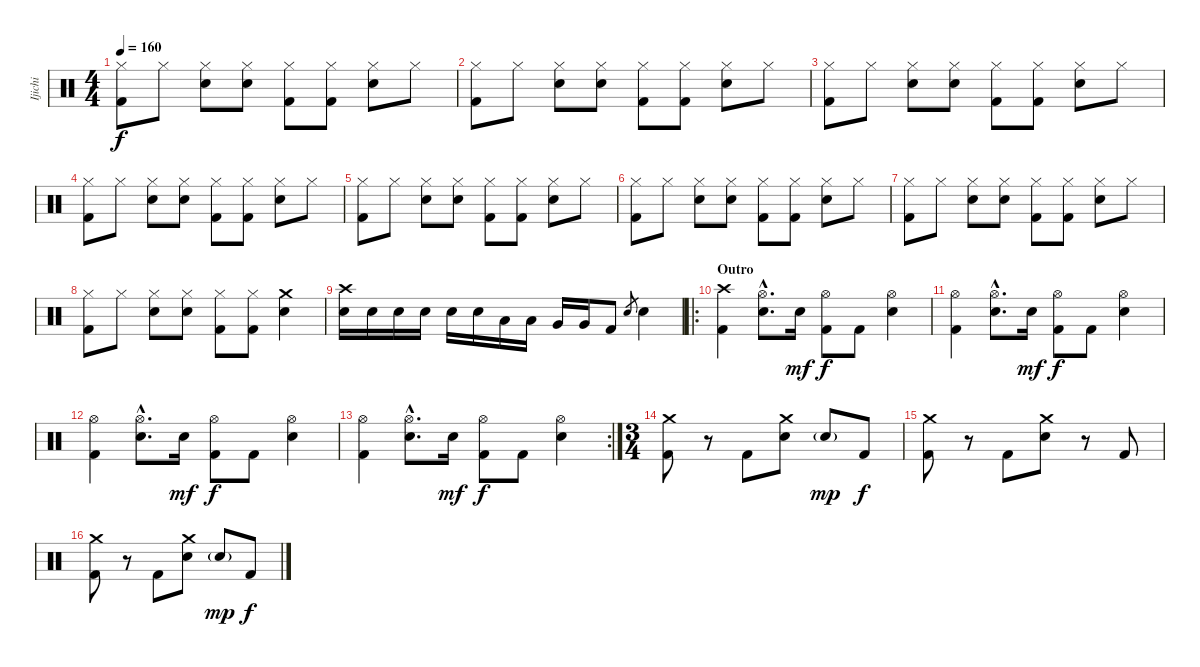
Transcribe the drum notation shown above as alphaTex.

\track ("Ijichi" "Ijichi") {instrument percussion}
\staff {score}
\articulation defaults
\ts (4 4)
\tempo 160
\clef neutral
\ks c
("Kick (hit) 2" "Hi-Hat (closed)").8{dy f} "Hi-Hat (closed)".8 ("Electric Snare (hit)" "Hi-Hat (closed)").8 ("Electric Snare (hit)" "Hi-Hat (closed)").8 ("Kick (hit) 2" "Hi-Hat (closed)").8 ("Kick (hit) 2" "Hi-Hat (closed)").8 ("Electric Snare (hit)" "Hi-Hat (closed)").8 "Hi-Hat (closed)".8 |
("Kick (hit) 2" "Hi-Hat (closed)").8 "Hi-Hat (closed)".8 ("Electric Snare (hit)" "Hi-Hat (closed)").8 ("Electric Snare (hit)" "Hi-Hat (closed)").8 ("Kick (hit) 2" "Hi-Hat (closed)").8 ("Kick (hit) 2" "Hi-Hat (closed)").8 ("Electric Snare (hit)" "Hi-Hat (closed)").8 "Hi-Hat (closed)".8 |
("Kick (hit) 2" "Hi-Hat (closed)").8 "Hi-Hat (closed)".8 ("Electric Snare (hit)" "Hi-Hat (closed)").8 ("Electric Snare (hit)" "Hi-Hat (closed)").8 ("Kick (hit) 2" "Hi-Hat (closed)").8 ("Kick (hit) 2" "Hi-Hat (closed)").8 ("Electric Snare (hit)" "Hi-Hat (closed)").8 "Hi-Hat (closed)".8 |
("Kick (hit) 2" "Hi-Hat (closed)").8 "Hi-Hat (closed)".8 ("Electric Snare (hit)" "Hi-Hat (closed)").8 ("Electric Snare (hit)" "Hi-Hat (closed)").8 ("Kick (hit) 2" "Hi-Hat (closed)").8 ("Kick (hit) 2" "Hi-Hat (closed)").8 ("Electric Snare (hit)" "Hi-Hat (closed)").8 "Hi-Hat (closed)".8 |
("Kick (hit) 2" "Hi-Hat (closed)").8 "Hi-Hat (closed)".8 ("Electric Snare (hit)" "Hi-Hat (closed)").8 ("Electric Snare (hit)" "Hi-Hat (closed)").8 ("Kick (hit) 2" "Hi-Hat (closed)").8 ("Kick (hit) 2" "Hi-Hat (closed)").8 ("Electric Snare (hit)" "Hi-Hat (closed)").8 "Hi-Hat (closed)".8 |
("Kick (hit) 2" "Hi-Hat (closed)").8 "Hi-Hat (closed)".8 ("Electric Snare (hit)" "Hi-Hat (closed)").8 ("Electric Snare (hit)" "Hi-Hat (closed)").8 ("Kick (hit) 2" "Hi-Hat (closed)").8 ("Kick (hit) 2" "Hi-Hat (closed)").8 ("Electric Snare (hit)" "Hi-Hat (closed)").8 "Hi-Hat (closed)".8 |
("Kick (hit) 2" "Hi-Hat (closed)").8 "Hi-Hat (closed)".8 ("Electric Snare (hit)" "Hi-Hat (closed)").8 ("Electric Snare (hit)" "Hi-Hat (closed)").8 ("Kick (hit) 2" "Hi-Hat (closed)").8 ("Kick (hit) 2" "Hi-Hat (closed)").8 ("Electric Snare (hit)" "Hi-Hat (closed)").8 "Hi-Hat (closed)".8 |
("Kick (hit) 2" "Hi-Hat (closed)").8 "Hi-Hat (closed)".8 ("Electric Snare (hit)" "Hi-Hat (closed)").8 ("Electric Snare (hit)" "Hi-Hat (closed)").8 ("Kick (hit) 2" "Hi-Hat (closed)").8 ("Kick (hit) 2" "Hi-Hat (closed)").8 ("Electric Snare (hit)" "Crash medium (hit)").4 |
("Electric Snare (hit)" "Crash high (hit)").16 "Electric Snare (hit)".16 "Electric Snare (hit)".16 "Electric Snare (hit)".16 "Electric Snare (hit)".16 "Electric Snare (hit)".16 "Low Tom (hit)".16 "Low Tom (hit)".16 "Very Low Tom (hit)".16 "Very Low Tom (hit)".16 "Kick (hit) 2".8 "Electric Snare (hit)".8{gr} "Electric Snare (hit)".4 |
\ro
\section ("" "Outro")
("Kick (hit) 2" "Crash high (hit)").4 ("Electric Snare (hit)"{hac} "Hi-Hat (open)"{hac}).8{d} "Electric Snare (hit)".16{dy mf} ("Kick (hit) 2" "Hi-Hat (open)").8{dy f} "Kick (hit) 2".8 ("Electric Snare (hit)" "Hi-Hat (open)").4 |
("Kick (hit) 2" "Hi-Hat (open)").4 ("Electric Snare (hit)"{hac} "Hi-Hat (open)"{hac}).8{d} "Electric Snare (hit)".16{dy mf} ("Kick (hit) 2" "Hi-Hat (open)").8{dy f} "Kick (hit) 2".8 ("Electric Snare (hit)" "Hi-Hat (open)").4 |
("Kick (hit) 2" "Hi-Hat (open)").4 ("Electric Snare (hit)"{hac} "Hi-Hat (open)"{hac}).8{d} "Electric Snare (hit)".16{dy mf} ("Kick (hit) 2" "Hi-Hat (open)").8{dy f} "Kick (hit) 2".8 ("Electric Snare (hit)" "Hi-Hat (open)").4 |
\rc 2
("Kick (hit) 2" "Hi-Hat (open)").4 ("Electric Snare (hit)"{hac} "Hi-Hat (open)"{hac}).8{d} "Electric Snare (hit)".16{dy mf} ("Kick (hit) 2" "Hi-Hat (open)").8{dy f} "Kick (hit) 2".8 ("Electric Snare (hit)" "Hi-Hat (open)").4 |
\ts (3 4)
("Kick (hit) 2" "Crash medium (hit)").8 r.8 "Kick (hit) 2".8 ("Electric Snare (hit)" "Crash medium (hit)").8 "Electric Snare (hit)"{g}.8{dy mp} "Kick (hit) 2".8{dy f} |
("Kick (hit) 2" "Crash medium (hit)").8 r.8 "Kick (hit) 2".8 ("Electric Snare (hit)" "Crash medium (hit)").8 r.8 "Kick (hit) 2".8 |
("Kick (hit) 2" "Crash medium (hit)").8 r.8 "Kick (hit) 2".8 ("Electric Snare (hit)" "Crash medium (hit)").8 "Electric Snare (hit)"{g}.8{dy mp} "Kick (hit) 2".8{dy f}
